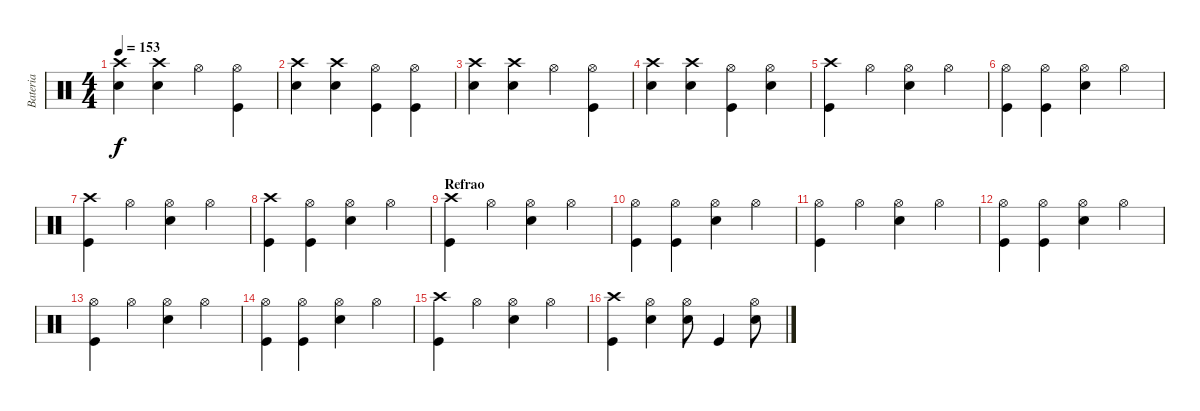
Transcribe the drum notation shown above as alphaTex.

\track ("Bateria" "Bateria") {instrument percussion}
\staff {score}
\articulation defaults
\ts (4 4)
\tempo 153
\clef neutral
\ks c
("Crash high (hit)" "Electric Snare (hit)").4{dy f} ("Crash high (hit)" "Electric Snare (hit)").4 "Hi-Hat (open)".4 ("Hi-Hat (open)" "Kick (hit)").4 |
("Crash high (hit)" "Electric Snare (hit)").4 ("Crash high (hit)" "Electric Snare (hit)").4 ("Hi-Hat (open)" "Kick (hit)").4 ("Hi-Hat (open)" "Kick (hit)").4 |
("Crash high (hit)" "Electric Snare (hit)").4 ("Crash high (hit)" "Electric Snare (hit)").4 "Hi-Hat (open)".4 ("Hi-Hat (open)" "Kick (hit)").4 |
("Crash high (hit)" "Electric Snare (hit)").4 ("Crash high (hit)" "Electric Snare (hit)").4 ("Hi-Hat (open)" "Kick (hit)").4 ("Hi-Hat (open)" "Electric Snare (hit)").4 |
("Crash high (hit)" "Kick (hit)").4 "Hi-Hat (open)".4 ("Hi-Hat (open)" "Electric Snare (hit)").4 "Hi-Hat (open)".4 |
("Hi-Hat (open)" "Kick (hit)").4 ("Hi-Hat (open)" "Kick (hit)").4 ("Hi-Hat (open)" "Electric Snare (hit)").4 "Hi-Hat (open)".4 |
("Crash high (hit)" "Kick (hit)").4 "Hi-Hat (open)".4 ("Hi-Hat (open)" "Electric Snare (hit)").4 "Hi-Hat (open)".4 |
("Crash high (hit)" "Kick (hit)").4 ("Hi-Hat (open)" "Kick (hit)").4 ("Hi-Hat (open)" "Electric Snare (hit)").4 "Hi-Hat (open)".4 |
\section ("" "Refrao")
("Crash high (hit)" "Kick (hit)").4 "Hi-Hat (open)".4 ("Hi-Hat (open)" "Electric Snare (hit)").4 "Hi-Hat (open)".4 |
("Hi-Hat (open)" "Kick (hit)").4 ("Hi-Hat (open)" "Kick (hit)").4 ("Hi-Hat (open)" "Electric Snare (hit)").4 "Hi-Hat (open)".4 |
("Hi-Hat (open)" "Kick (hit)").4 "Hi-Hat (open)".4 ("Hi-Hat (open)" "Electric Snare (hit)").4 "Hi-Hat (open)".4 |
("Hi-Hat (open)" "Kick (hit)").4 ("Hi-Hat (open)" "Kick (hit)").4 ("Hi-Hat (open)" "Electric Snare (hit)").4 "Hi-Hat (open)".4 |
("Hi-Hat (open)" "Kick (hit)").4 "Hi-Hat (open)".4 ("Hi-Hat (open)" "Electric Snare (hit)").4 "Hi-Hat (open)".4 |
("Hi-Hat (open)" "Kick (hit)").4 ("Hi-Hat (open)" "Kick (hit)").4 ("Hi-Hat (open)" "Electric Snare (hit)").4 "Hi-Hat (open)".4 |
("Crash high (hit)" "Kick (hit)").4 "Hi-Hat (open)".4 ("Hi-Hat (open)" "Electric Snare (hit)").4 "Hi-Hat (open)".4 |
("Crash high (hit)" "Kick (hit)").4 ("Hi-Hat (open)" "Electric Snare (hit)").4 ("Hi-Hat (open)" "Electric Snare (hit)").8 "Kick (hit)".4 ("Hi-Hat (open)" "Electric Snare (hit)").8
